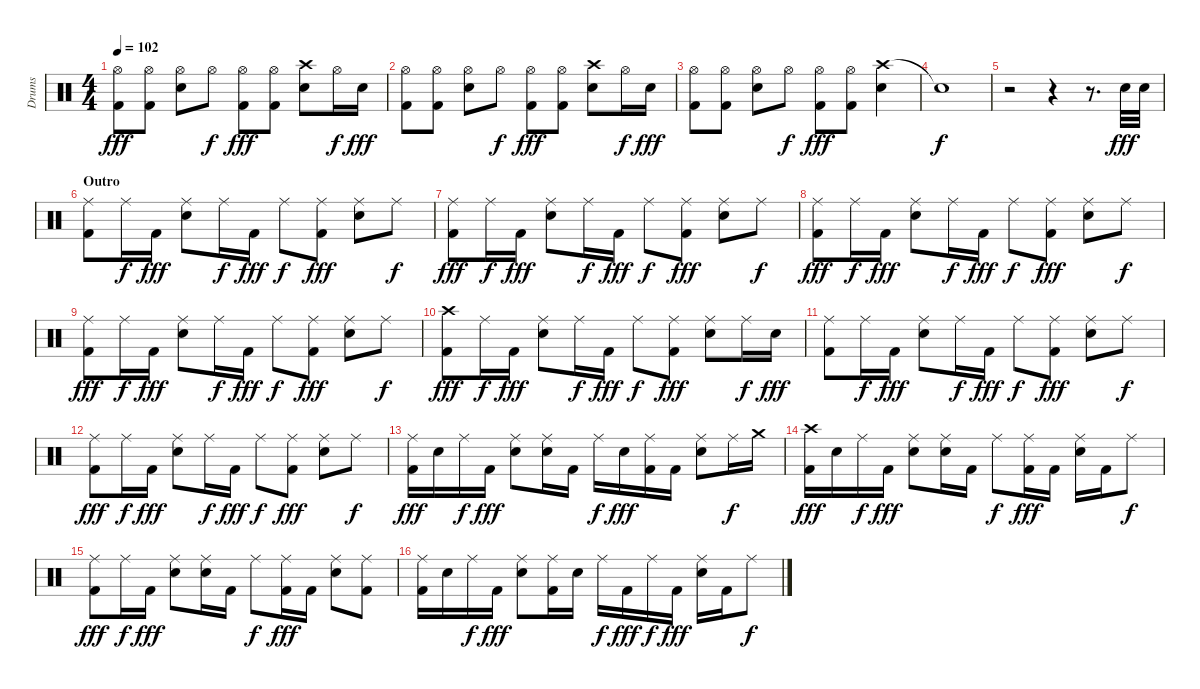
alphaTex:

\track ("Drums" "Drums") {instrument percussion}
\staff {score}
\articulation defaults
\ts (4 4)
\tempo 102
\clef neutral
\ks c
("Hi-Hat (open)" "Kick (hit) 2").8{dy fff} ("Hi-Hat (open)" "Kick (hit) 2").8 ("Hi-Hat (open)" "Electric Snare (hit)").8 "Hi-Hat (open)".8{dy f} ("Hi-Hat (open)" "Kick (hit) 2").8{dy fff} ("Hi-Hat (open)" "Kick (hit) 2").8 ("Crash high (hit)" "Electric Snare (hit)").8 "Hi-Hat (open)".16{dy f} "Electric Snare (hit)".16{dy fff} |
("Hi-Hat (open)" "Kick (hit) 2").8 ("Hi-Hat (open)" "Kick (hit) 2").8 ("Hi-Hat (open)" "Electric Snare (hit)").8 "Hi-Hat (open)".8{dy f} ("Hi-Hat (open)" "Kick (hit) 2").8{dy fff} ("Hi-Hat (open)" "Kick (hit) 2").8 ("Crash high (hit)" "Electric Snare (hit)").8 "Hi-Hat (open)".16{dy f} "Electric Snare (hit)".16{dy fff} |
("Hi-Hat (open)" "Kick (hit) 2").8 ("Hi-Hat (open)" "Kick (hit) 2").8 ("Hi-Hat (open)" "Electric Snare (hit)").8 "Hi-Hat (open)".8{dy f} ("Hi-Hat (open)" "Kick (hit) 2").8{dy fff} ("Hi-Hat (open)" "Kick (hit) 2").8 ("Crash high (hit)" "Electric Snare (hit)").4 |
"Snare (hit)"{t}.1{dy f} |
r.2 r.4 r.8{d} "Electric Snare (hit)".32{dy fff} "Electric Snare (hit)".32 |
\section ("" "Outro")
("Ride (middle)" "Kick (hit) 2").8 "Ride (middle)".16{dy f} "Kick (hit) 2".16{dy fff} ("Ride (middle)" "Electric Snare (hit)").8 "Ride (middle)".16{dy f} "Kick (hit) 2".16{dy fff} "Ride (middle)".8{dy f} ("Ride (middle)" "Kick (hit) 2").8{dy fff} ("Ride (middle)" "Electric Snare (hit)").8 "Ride (middle)".8{dy f} |
("Ride (middle)" "Kick (hit) 2").8{dy fff} "Ride (middle)".16{dy f} "Kick (hit) 2".16{dy fff} ("Ride (middle)" "Electric Snare (hit)").8 "Ride (middle)".16{dy f} "Kick (hit) 2".16{dy fff} "Ride (middle)".8{dy f} ("Ride (middle)" "Kick (hit) 2").8{dy fff} ("Ride (middle)" "Electric Snare (hit)").8 "Ride (middle)".8{dy f} |
("Ride (middle)" "Kick (hit) 2").8{dy fff} "Ride (middle)".16{dy f} "Kick (hit) 2".16{dy fff} ("Ride (middle)" "Electric Snare (hit)").8 "Ride (middle)".16{dy f} "Kick (hit) 2".16{dy fff} "Ride (middle)".8{dy f} ("Ride (middle)" "Kick (hit) 2").8{dy fff} ("Ride (middle)" "Electric Snare (hit)").8 "Ride (middle)".8{dy f} |
("Ride (middle)" "Kick (hit) 2").8{dy fff} "Ride (middle)".16{dy f} "Kick (hit) 2".16{dy fff} ("Ride (middle)" "Electric Snare (hit)").8 "Ride (middle)".16{dy f} "Kick (hit) 2".16{dy fff} "Ride (middle)".8{dy f} ("Ride (middle)" "Kick (hit) 2").8{dy fff} ("Ride (middle)" "Electric Snare (hit)").8 "Ride (middle)".8{dy f} |
("Crash high (hit)" "Kick (hit) 2").8{dy fff} "Ride (middle)".16{dy f} "Kick (hit) 2".16{dy fff} ("Ride (middle)" "Electric Snare (hit)").8 "Ride (middle)".16{dy f} "Kick (hit) 2".16{dy fff} "Ride (middle)".8{dy f} ("Ride (middle)" "Kick (hit) 2").8{dy fff} ("Ride (middle)" "Electric Snare (hit)").8 "Ride (middle)".16{dy f} "Electric Snare (hit)".16{dy fff} |
("Ride (middle)" "Kick (hit) 2").8 "Ride (middle)".16{dy f} "Kick (hit) 2".16{dy fff} ("Ride (middle)" "Electric Snare (hit)").8 "Ride (middle)".16{dy f} "Kick (hit) 2".16{dy fff} "Ride (middle)".8{dy f} ("Ride (middle)" "Kick (hit) 2").8{dy fff} ("Ride (middle)" "Electric Snare (hit)").8 "Ride (middle)".8{dy f} |
("Ride (middle)" "Kick (hit) 2").8{dy fff} "Ride (middle)".16{dy f} "Kick (hit) 2".16{dy fff} ("Ride (middle)" "Electric Snare (hit)").8 "Ride (middle)".16{dy f} "Kick (hit) 2".16{dy fff} "Ride (middle)".8{dy f} ("Ride (middle)" "Kick (hit) 2").8{dy fff} ("Ride (middle)" "Electric Snare (hit)").8 "Ride (middle)".8{dy f} |
("Ride (middle)" "Kick (hit) 2").16{dy fff} "Electric Snare (hit)".16 "Ride (middle)".16{dy f} "Kick (hit) 2".16{dy fff} ("Ride (middle)" "Electric Snare (hit)").8 ("Ride (middle)" "Electric Snare (hit)").16 "Kick (hit) 2".16 "Ride (middle)".16{dy f} "Electric Snare (hit)".16{dy fff} ("Ride (middle)" "Kick (hit) 2").16 "Kick (hit) 2".16 ("Ride (middle)" "Electric Snare (hit)").8 "Ride (middle)".16{dy f} "Crash medium (hit)".16 |
("Crash high (hit)" "Kick (hit) 2").16{dy fff} "Electric Snare (hit)".16 "Ride (middle)".16{dy f} "Kick (hit) 2".16{dy fff} ("Ride (middle)" "Electric Snare (hit)").8 ("Ride (middle)" "Electric Snare (hit)").16 "Kick (hit) 2".16 "Ride (middle)".8{dy f} ("Ride (middle)" "Kick (hit) 2").16{dy fff} "Kick (hit) 2".16 ("Ride (middle)" "Electric Snare (hit)").16 "Kick (hit) 2".16 "Ride (middle)".8{dy f} |
("Ride (middle)" "Kick (hit) 2").8{dy fff} "Ride (middle)".16{dy f} "Kick (hit) 2".16{dy fff} ("Ride (middle)" "Electric Snare (hit)").8 ("Ride (middle)" "Electric Snare (hit)").16 "Kick (hit) 2".16 "Ride (middle)".8{dy f} ("Ride (middle)" "Kick (hit) 2").16{dy fff} "Kick (hit) 2".16 ("Ride (middle)" "Electric Snare (hit)").8 ("Ride (middle)" "Kick (hit) 2").8 |
("Ride (middle)" "Kick (hit) 2").16 "Electric Snare (hit)".16 "Ride (middle)".16{dy f} "Kick (hit) 2".16{dy fff} ("Ride (middle)" "Electric Snare (hit)").8 ("Ride (middle)" "Kick (hit) 2").16 "Electric Snare (hit)".16 "Ride (middle)".16{dy f} "Kick (hit) 2".16{dy fff} "Ride (middle)".16{dy f} "Kick (hit) 2".16{dy fff} ("Ride (middle)" "Electric Snare (hit)").16 "Kick (hit) 2".16 "Ride (middle)".8{dy f}
